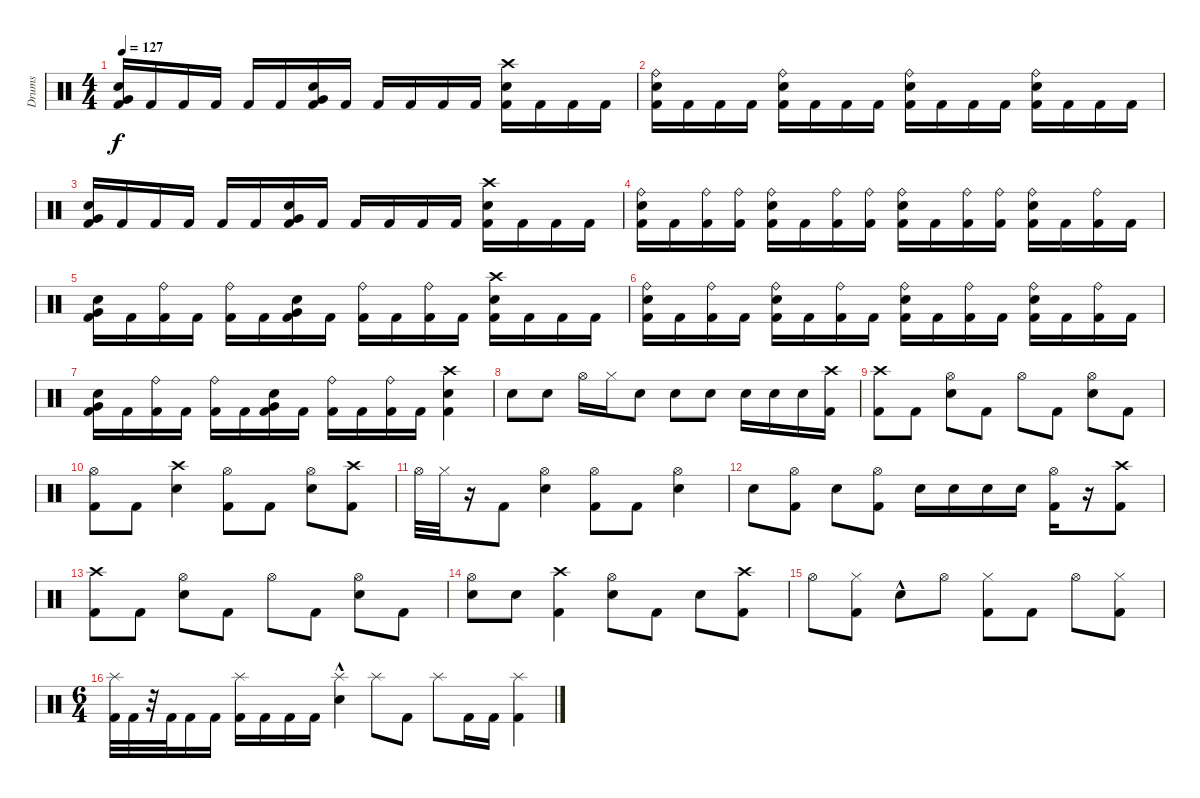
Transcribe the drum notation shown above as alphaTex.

\track ("Drums" "Drums") {instrument percussion}
\staff {score}
\articulation defaults
\ts (4 4)
\tempo 127
\clef neutral
\ks c
("Kick (hit) 2" "Electric Snare (hit)" "Very Low Tom (hit)").16{dy f} "Kick (hit) 2".16 "Kick (hit) 2".16 "Kick (hit) 2".16 "Kick (hit) 2".16 "Kick (hit) 2".16 ("Kick (hit) 2" "Electric Snare (hit)" "Very Low Tom (hit)").16 "Kick (hit) 2".16 "Kick (hit) 2".16 "Kick (hit) 2".16 "Kick (hit) 2".16 "Kick (hit) 2".16 ("Kick (hit) 2" "Electric Snare (hit)" "Crash high (hit)").16 "Kick (hit) 2".16 "Kick (hit) 2".16 "Kick (hit) 2".16 |
("Kick (hit) 2" "Electric Snare (hit)" "Ride (bell)").16 "Kick (hit) 2".16 "Kick (hit) 2".16 "Kick (hit) 2".16 ("Kick (hit) 2" "Electric Snare (hit)" "Ride (bell)").16 "Kick (hit) 2".16 "Kick (hit) 2".16 "Kick (hit) 2".16 ("Kick (hit) 2" "Electric Snare (hit)" "Ride (bell)").16 "Kick (hit) 2".16 "Kick (hit) 2".16 "Kick (hit) 2".16 ("Kick (hit) 2" "Electric Snare (hit)" "Ride (bell)").16 "Kick (hit) 2".16 "Kick (hit) 2".16 "Kick (hit) 2".16 |
("Very Low Tom (hit)" "Electric Snare (hit)" "Kick (hit) 2").16 "Kick (hit) 2".16 "Kick (hit) 2".16 "Kick (hit) 2".16 "Kick (hit) 2".16 "Kick (hit) 2".16 ("Kick (hit) 2" "Electric Snare (hit)" "Very Low Tom (hit)").16 "Kick (hit) 2".16 "Kick (hit) 2".16 "Kick (hit) 2".16 "Kick (hit) 2".16 "Kick (hit) 2".16 ("Kick (hit) 2" "Electric Snare (hit)" "Crash high (hit)").16 "Kick (hit) 2".16 "Kick (hit) 2".16 "Kick (hit) 2".16 |
("Kick (hit) 2" "Electric Snare (hit)" "Ride (bell)").16 "Kick (hit) 2".16 ("Kick (hit) 2" "Ride (bell)").16 ("Kick (hit) 2" "Ride (bell)").16 ("Kick (hit) 2" "Electric Snare (hit)" "Ride (bell)").16 "Kick (hit) 2".16 ("Kick (hit) 2" "Ride (bell)").16 ("Kick (hit) 2" "Ride (bell)").16 ("Kick (hit) 2" "Electric Snare (hit)" "Ride (bell)").16 "Kick (hit) 2".16 ("Kick (hit) 2" "Ride (bell)").16 ("Kick (hit) 2" "Ride (bell)").16 ("Kick (hit) 2" "Electric Snare (hit)" "Ride (bell)").16 "Kick (hit) 2".16 ("Kick (hit) 2" "Ride (bell)").16 "Kick (hit) 2".16 |
("Very Low Tom (hit)" "Electric Snare (hit)" "Kick (hit) 2").16 "Kick (hit) 2".16 ("Kick (hit) 2" "Ride (bell)").16 "Kick (hit) 2".16 ("Kick (hit) 2" "Ride (bell)").16 "Kick (hit) 2".16 ("Kick (hit) 2" "Electric Snare (hit)" "Very Low Tom (hit)").16 "Kick (hit) 2".16 ("Kick (hit) 2" "Ride (bell)").16 "Kick (hit) 2".16 ("Kick (hit) 2" "Ride (bell)").16 "Kick (hit) 2".16 ("Kick (hit) 2" "Electric Snare (hit)" "Crash high (hit)").16 "Kick (hit) 2".16 "Kick (hit) 2".16 "Kick (hit) 2".16 |
("Kick (hit) 2" "Electric Snare (hit)" "Ride (bell)").16 "Kick (hit) 2".16 ("Kick (hit) 2" "Ride (bell)").16 "Kick (hit) 2".16 ("Kick (hit) 2" "Electric Snare (hit)" "Ride (bell)").16 "Kick (hit) 2".16 ("Kick (hit) 2" "Ride (bell)").16 "Kick (hit) 2".16 ("Kick (hit) 2" "Electric Snare (hit)" "Ride (bell)").16 "Kick (hit) 2".16 ("Kick (hit) 2" "Ride (bell)").16 "Kick (hit) 2".16 ("Kick (hit) 2" "Electric Snare (hit)" "Ride (bell)").16 "Kick (hit) 2".16 ("Kick (hit) 2" "Ride (bell)").16 "Kick (hit) 2".16 |
("Kick (hit) 2" "Electric Snare (hit)" "Very Low Tom (hit)").16 "Kick (hit) 2".16 ("Kick (hit) 2" "Ride (bell)").16 "Kick (hit) 2".16 ("Kick (hit) 2" "Ride (bell)").16 "Kick (hit) 2".16 ("Kick (hit) 2" "Electric Snare (hit)" "Very Low Tom (hit)").16 "Kick (hit) 2".16 ("Kick (hit) 2" "Ride (bell)").16 "Kick (hit) 2".16 ("Kick (hit) 2" "Ride (bell)").16 "Kick (hit) 2".16 ("Kick (hit) 2" "Electric Snare (hit)" "Crash high (hit)").4 |
"Electric Snare (hit)".8 "Electric Snare (hit)".8 "Hi-Hat (open)".16 "Hi-Hat (closed)".16 "Electric Snare (hit)".8 "Electric Snare (hit)".8 "Electric Snare (hit)".8 "Electric Snare (hit)".16 "Electric Snare (hit)".16 "Electric Snare (hit)".16 ("Kick (hit) 2" "Crash high (hit)").16 |
("Crash high (hit)" "Kick (hit) 2").8 "Kick (hit) 2".8 ("Electric Snare (hit)" "Hi-Hat (open)").8 "Kick (hit) 2".8 "Hi-Hat (open)".8 "Kick (hit) 2".8 ("Electric Snare (hit)" "Hi-Hat (open)").8 "Kick (hit) 2".8 |
("Kick (hit) 2" "Hi-Hat (open)").8 "Kick (hit) 2".8 ("Electric Snare (hit)" "Crash high (hit)").4 ("Kick (hit) 2" "Hi-Hat (open)").8 "Kick (hit) 2".8 ("Electric Snare (hit)" "Hi-Hat (open)").8 ("Kick (hit) 2" "Crash high (hit)").8 |
"Hi-Hat (open)".32 "Hi-Hat (closed)".32 r.16 "Kick (hit) 2".8 ("Hi-Hat (open)" "Electric Snare (hit)").4 ("Hi-Hat (open)" "Kick (hit) 2").8 "Kick (hit) 2".8 ("Hi-Hat (open)" "Electric Snare (hit)").4 |
"Electric Snare (hit)".8 ("Kick (hit) 2" "Hi-Hat (open)").8 "Electric Snare (hit)".8 ("Kick (hit) 2" "Hi-Hat (open)").8 "Electric Snare (hit)".16 "Electric Snare (hit)".16 "Electric Snare (hit)".16 "Electric Snare (hit)".16 ("Kick (hit) 2" "Hi-Hat (open)").16 r.16 ("Crash high (hit)" "Kick (hit) 2").8 |
("Kick (hit) 2" "Crash high (hit)").8 "Kick (hit) 2".8 ("Electric Snare (hit)" "Hi-Hat (open)").8 "Kick (hit) 2".8 "Hi-Hat (open)".8 "Kick (hit) 2".8 ("Electric Snare (hit)" "Hi-Hat (open)").8 "Kick (hit) 2".8 |
("Electric Snare (hit)" "Hi-Hat (open)").8 "Electric Snare (hit)".8 ("Crash high (hit)" "Kick (hit) 2").4 ("Electric Snare (hit)" "Hi-Hat (open)").8 "Kick (hit) 2".8 "Electric Snare (hit)".8 ("Crash high (hit)" "Kick (hit) 2").8 |
"Hi-Hat (open)".8 ("Kick (hit) 2" "Hi-Hat (closed)").8 "Electric Snare (hit)"{hac}.8 "Hi-Hat (open)".8 ("Kick (hit) 2" "Hi-Hat (closed)").8 "Kick (hit) 2".8 "Hi-Hat (open)".8 ("Kick (hit) 2" "Hi-Hat (closed)").8 |
\ts (6 4)
("Kick (hit) 2" "Splash (hit)").32 "Kick (hit) 2".32 r.32 "Kick (hit) 2".32 "Kick (hit) 2".16 "Kick (hit) 2".16 ("Kick (hit) 2" "Splash (hit)").16 "Kick (hit) 2".16 "Kick (hit) 2".16 "Kick (hit) 2".16 ("Electric Snare (hit)"{hac} "Splash (hit)").4 "Splash (hit)".8 "Kick (hit) 2".8 "Splash (hit)".8 "Kick (hit) 2".16 "Kick (hit) 2".16 ("Splash (hit)" "Kick (hit) 2").4
